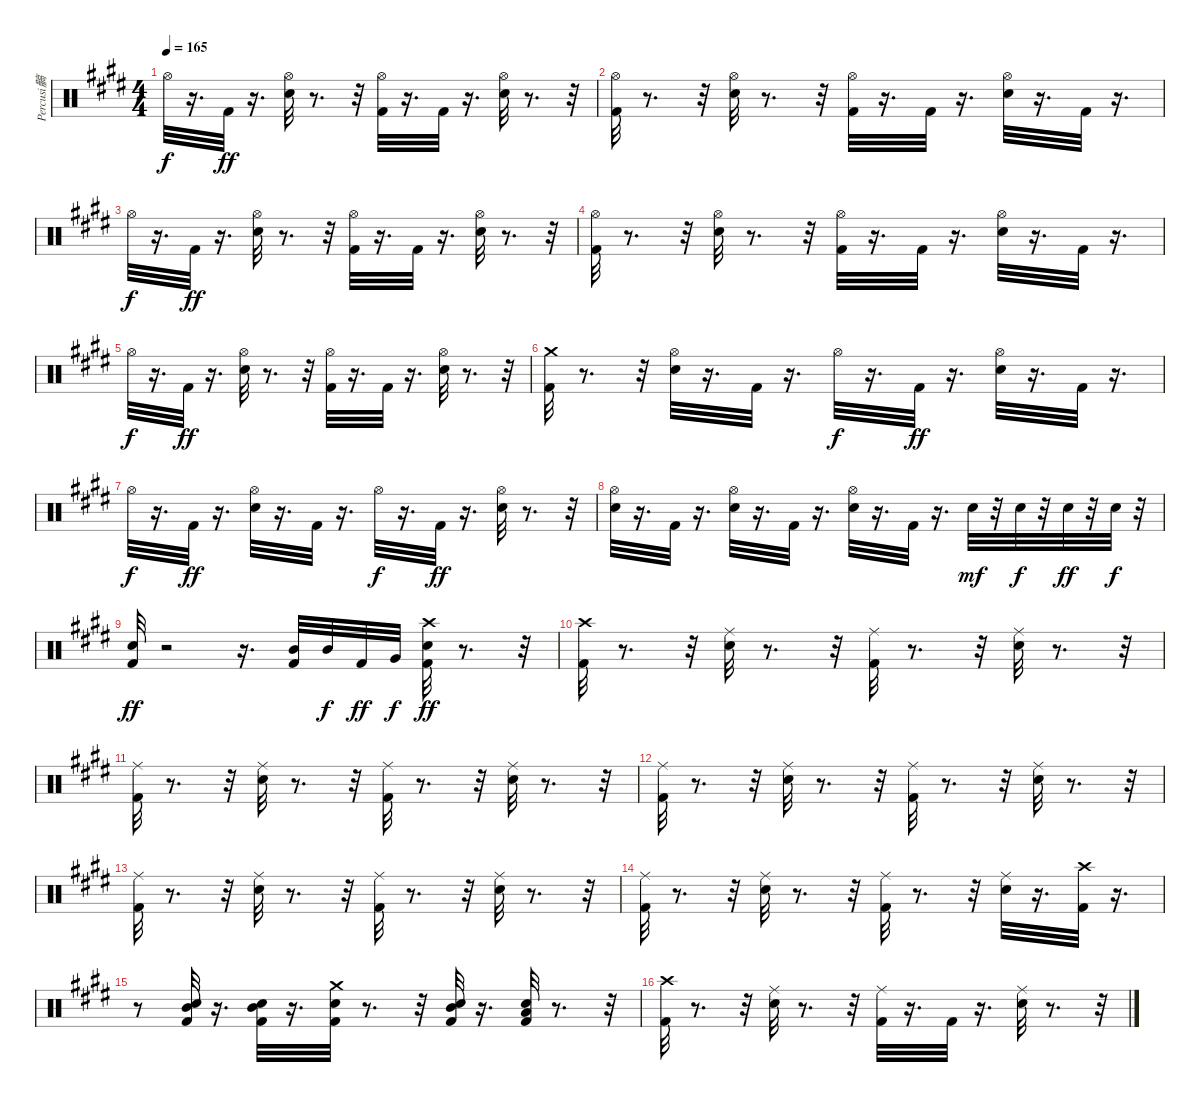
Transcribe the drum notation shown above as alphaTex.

\track ("Percusi髇" "Percusi髇") {instrument percussion}
\staff {score}
\articulation defaults
\ts (4 4)
\tempo 165
\clef neutral
\ks e "Hi-Hat (open)".32{dy f}
r.16{d} "Kick (hit) 2".32{dy ff} r.16{d} ("Electric Snare (hit)" "Hi-Hat (open)").32 r.8{d} r.32 ("Kick (hit) 2" "Hi-Hat (open)").32 r.16{d} "Kick (hit) 2".32 r.16{d} ("Electric Snare (hit)" "Hi-Hat (open)").32 r.8{d} r.32 |
("Kick (hit) 2" "Hi-Hat (open)").32 r.8{d} r.32 ("Electric Snare (hit)" "Hi-Hat (open)").32 r.8{d} r.32 ("Kick (hit) 2" "Hi-Hat (open)").32 r.16{d} "Kick (hit) 2".32 r.16{d} ("Electric Snare (hit)" "Hi-Hat (open)").32 r.16{d} "Kick (hit) 2".32 r.16{d} |
"Hi-Hat (open)".32{dy f} r.16{d} "Kick (hit) 2".32{dy ff} r.16{d} ("Electric Snare (hit)" "Hi-Hat (open)").32 r.8{d} r.32 ("Kick (hit) 2" "Hi-Hat (open)").32 r.16{d} "Kick (hit) 2".32 r.16{d} ("Electric Snare (hit)" "Hi-Hat (open)").32 r.8{d} r.32 |
("Kick (hit) 2" "Hi-Hat (open)").32 r.8{d} r.32 ("Electric Snare (hit)" "Hi-Hat (open)").32 r.8{d} r.32 ("Kick (hit) 2" "Hi-Hat (open)").32 r.16{d} "Kick (hit) 2".32 r.16{d} ("Electric Snare (hit)" "Hi-Hat (open)").32 r.16{d} "Kick (hit) 2".32 r.16{d} |
"Hi-Hat (open)".32{dy f} r.16{d} "Kick (hit) 2".32{dy ff} r.16{d} ("Electric Snare (hit)" "Hi-Hat (open)").32 r.8{d} r.32 ("Kick (hit) 2" "Hi-Hat (open)").32 r.16{d} "Kick (hit) 2".32 r.16{d} ("Electric Snare (hit)" "Hi-Hat (open)").32 r.8{d} r.32 |
("Crash medium (hit)" "Kick (hit) 2").32 r.8{d} r.32 ("Electric Snare (hit)" "Hi-Hat (open)").32 r.16{d} "Kick (hit) 2".32 r.16{d} "Hi-Hat (open)".32{dy f} r.16{d} "Kick (hit) 2".32{dy ff} r.16{d} ("Electric Snare (hit)" "Hi-Hat (open)").32 r.16{d} "Kick (hit) 2".32 r.16{d} |
"Hi-Hat (open)".32{dy f} r.16{d} "Kick (hit) 2".32{dy ff} r.16{d} ("Electric Snare (hit)" "Hi-Hat (open)").32 r.16{d} "Kick (hit) 2".32 r.16{d} "Hi-Hat (open)".32{dy f} r.16{d} "Kick (hit) 2".32{dy ff} r.16{d} ("Electric Snare (hit)" "Hi-Hat (open)").32 r.8{d} r.32 |
("Hi-Hat (open)" "Electric Snare (hit)").32 r.16{d} "Kick (hit) 2".32 r.16{d} ("Electric Snare (hit)" "Hi-Hat (open)").32 r.16{d} "Kick (hit) 2".32 r.16{d} ("Electric Snare (hit)" "Hi-Hat (open)").32 r.16{d} "Kick (hit) 2".32 r.16{d} "Electric Snare (hit)".32{dy mf} r.32 "Electric Snare (hit)".32{dy f} r.32 "Electric Snare (hit)".32{dy ff} r.32 "Electric Snare (hit)".32{dy f} r.32 |
("Kick (hit) 2" "Electric Snare (hit)").32{dy ff} r.2 r.16{d} ("Mid Tom (hit)" "Kick (hit) 2").32 "Mid Tom (hit)".32{dy f} "Kick (hit) 2".32{dy ff} "Very Low Tom (hit)".32{dy f} ("Crash high (hit)" "Kick (hit) 2" "Electric Snare (hit)").32{dy ff} r.8{d} r.32 |
("Crash high (hit)" "Kick (hit) 2").32 r.8{d} r.32 ("Electric Snare (hit)" "Ride (middle)").32 r.8{d} r.32 ("Kick (hit) 2" "Ride (middle)").32 r.8{d} r.32 ("Electric Snare (hit)" "Ride (middle)").32 r.8{d} r.32 |
("Kick (hit) 2" "Ride (middle)").32 r.8{d} r.32 ("Electric Snare (hit)" "Ride (middle)").32 r.8{d} r.32 ("Kick (hit) 2" "Ride (middle)").32 r.8{d} r.32 ("Electric Snare (hit)" "Ride (middle)").32 r.8{d} r.32 |
("Kick (hit) 2" "Ride (middle)").32 r.8{d} r.32 ("Electric Snare (hit)" "Ride (middle)").32 r.8{d} r.32 ("Kick (hit) 2" "Ride (middle)").32 r.8{d} r.32 ("Electric Snare (hit)" "Ride (middle)").32 r.8{d} r.32 |
("Kick (hit) 2" "Ride (middle)").32 r.8{d} r.32 ("Electric Snare (hit)" "Ride (middle)").32 r.8{d} r.32 ("Kick (hit) 2" "Ride (middle)").32 r.8{d} r.32 ("Electric Snare (hit)" "Ride (middle)").32 r.8{d} r.32 |
("Kick (hit) 2" "Ride (middle)").32 r.8{d} r.32 ("Electric Snare (hit)" "Ride (middle)").32 r.8{d} r.32 ("Kick (hit) 2" "Ride (middle)").32 r.8{d} r.32 ("Electric Snare (hit)" "Ride (middle)").32 r.16{d} ("Crash high (hit)" "Kick (hit) 2").32 r.16{d} |
r.8 ("Mid Tom (hit)" "Kick (hit) 2" "Electric Snare (hit)").32 r.16{d} ("Mid Tom (hit)" "Kick (hit) 2" "Electric Snare (hit)").32 r.16{d} ("Crash medium (hit)" "Kick (hit) 2" "Electric Snare (hit)").32 r.8{d} r.32 ("Mid Tom (hit)" "Kick (hit) 2" "Electric Snare (hit)").32 r.16{d} ("Kick (hit) 2" "Low Tom (hit)" "Electric Snare (hit)").32 r.8{d} r.32 |
("Crash high (hit)" "Kick (hit) 2").32 r.8{d} r.32 ("Electric Snare (hit)" "Ride (middle)").32 r.8{d} r.32 ("Kick (hit) 2" "Ride (middle)").32 r.16{d} "Kick (hit) 2".32 r.16{d} ("Electric Snare (hit)" "Ride (middle)").32 r.8{d} r.32
